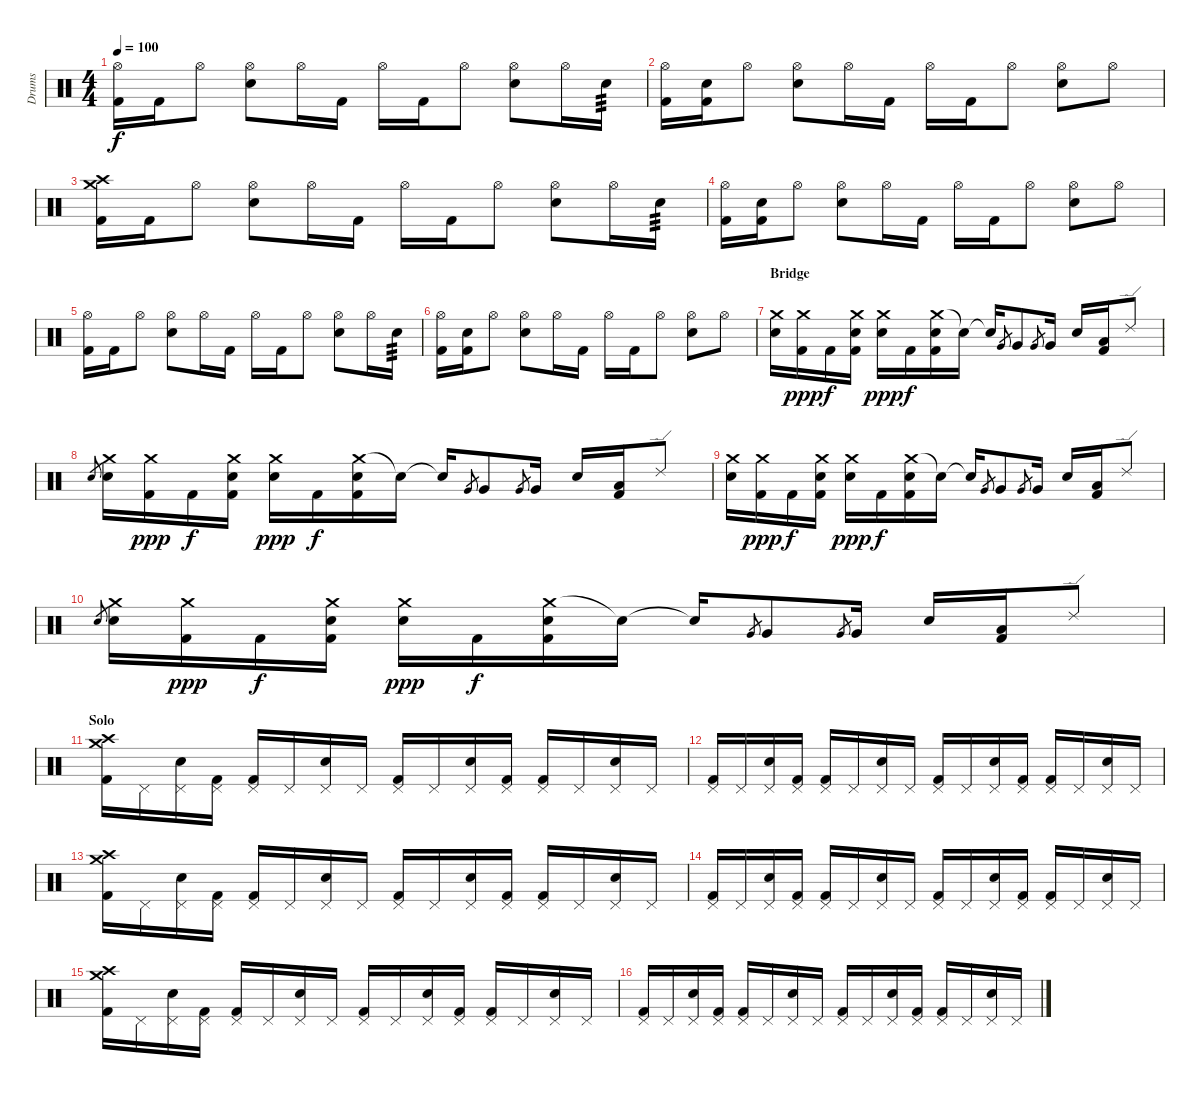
\track ("Drums" "Drums") {instrument percussion}
\staff {score}
\articulation defaults
\ts (4 4)
\tempo 100
\clef neutral
\ks c
("Hi-Hat (open)" "Kick (hit) 2").16{dy f} "Kick (hit) 2".16 "Hi-Hat (open)".8 ("Hi-Hat (open)" "Electric Snare (hit)").8 "Hi-Hat (open)".16 "Kick (hit) 2".16 "Hi-Hat (open)".16 "Kick (hit) 2".16 "Hi-Hat (open)".8 ("Hi-Hat (open)" "Electric Snare (hit)").8 "Hi-Hat (open)".16 "Electric Snare (hit)".16{tp 3} |
("Hi-Hat (open)" "Kick (hit) 2").16 ("Electric Snare (hit)" "Kick (hit) 2").16 "Hi-Hat (open)".8 ("Hi-Hat (open)" "Electric Snare (hit)").8 "Hi-Hat (open)".16 "Kick (hit) 2".16 "Hi-Hat (open)".16 "Kick (hit) 2".16 "Hi-Hat (open)".8 ("Hi-Hat (open)" "Electric Snare (hit)").8 "Hi-Hat (open)".8 |
("Crash high (hit)" "Crash medium (hit)" "Kick (hit) 2").16 "Kick (hit) 2".16 "Hi-Hat (open)".8 ("Hi-Hat (open)" "Electric Snare (hit)").8 "Hi-Hat (open)".16 "Kick (hit) 2".16 "Hi-Hat (open)".16 "Kick (hit) 2".16 "Hi-Hat (open)".8 ("Hi-Hat (open)" "Electric Snare (hit)").8 "Hi-Hat (open)".16 "Electric Snare (hit)".16{tp 3} |
("Hi-Hat (open)" "Kick (hit) 2").16 ("Electric Snare (hit)" "Kick (hit) 2").16 "Hi-Hat (open)".8 ("Hi-Hat (open)" "Electric Snare (hit)").8 "Hi-Hat (open)".16 "Kick (hit) 2".16 "Hi-Hat (open)".16 "Kick (hit) 2".16 "Hi-Hat (open)".8 ("Hi-Hat (open)" "Electric Snare (hit)").8 "Hi-Hat (open)".8 |
("Hi-Hat (open)" "Kick (hit) 2").16 "Kick (hit) 2".16 "Hi-Hat (open)".8 ("Hi-Hat (open)" "Electric Snare (hit)").8 "Hi-Hat (open)".16 "Kick (hit) 2".16 "Hi-Hat (open)".16 "Kick (hit) 2".16 "Hi-Hat (open)".8 ("Hi-Hat (open)" "Electric Snare (hit)").8 "Hi-Hat (open)".16 "Electric Snare (hit)".16{tp 3} |
("Hi-Hat (open)" "Kick (hit) 2").16 ("Electric Snare (hit)" "Kick (hit) 2").16 "Hi-Hat (open)".8 ("Hi-Hat (open)" "Electric Snare (hit)").8 "Hi-Hat (open)".16 "Kick (hit) 2".16 "Hi-Hat (open)".16 "Kick (hit) 2".16 "Hi-Hat (open)".8 ("Hi-Hat (open)" "Electric Snare (hit)").8 "Hi-Hat (open)".8 |
\section ("" "Bridge")
("Crash medium (hit)" "Electric Snare (hit)").16 ("Crash medium (hit)" "Kick (hit) 2").16{dy ppp} "Kick (hit) 2".16{dy f} ("Crash medium (hit)" "Electric Snare (hit)" "Kick (hit) 2").16 ("Crash medium (hit)" "Electric Snare (hit)").16{dy ppp} "Kick (hit) 2".16{dy f} ("Crash medium (hit)" "Electric Snare (hit)" "Kick (hit) 2").16 "Electric Snare (hit)"{t}.16 "Electric Snare (hit)"{t}.16 "Very Low Tom (hit)".8{gr} "Very Low Tom (hit)".8 "Very Low Tom (hit)".8{gr} "Very Low Tom (hit)".16 "Electric Snare (hit)".16 ("Low Tom (hit)" "Kick (hit) 2").16 "Ride (edge) 2".8 |
"Electric Snare (hit)".8{gr} ("Crash medium (hit)" "Electric Snare (hit)").16 ("Crash medium (hit)" "Kick (hit) 2").16{dy ppp} "Kick (hit) 2".16{dy f} ("Crash medium (hit)" "Electric Snare (hit)" "Kick (hit) 2").16 ("Crash medium (hit)" "Electric Snare (hit)").16{dy ppp} "Kick (hit) 2".16{dy f} ("Crash medium (hit)" "Electric Snare (hit)" "Kick (hit) 2").16 "Electric Snare (hit)"{t}.16 "Electric Snare (hit)"{t}.16 "Very Low Tom (hit)".8{gr} "Very Low Tom (hit)".8 "Very Low Tom (hit)".8{gr} "Very Low Tom (hit)".16 "Electric Snare (hit)".16 ("Low Tom (hit)" "Kick (hit) 2").16 "Ride (edge) 2".8 |
("Crash medium (hit)" "Electric Snare (hit)").16 ("Crash medium (hit)" "Kick (hit) 2").16{dy ppp} "Kick (hit) 2".16{dy f} ("Crash medium (hit)" "Electric Snare (hit)" "Kick (hit) 2").16 ("Crash medium (hit)" "Electric Snare (hit)").16{dy ppp} "Kick (hit) 2".16{dy f} ("Crash medium (hit)" "Electric Snare (hit)" "Kick (hit) 2").16 "Electric Snare (hit)"{t}.16 "Electric Snare (hit)"{t}.16 "Very Low Tom (hit)".8{gr} "Very Low Tom (hit)".8 "Very Low Tom (hit)".8{gr} "Very Low Tom (hit)".16 "Electric Snare (hit)".16 ("Low Tom (hit)" "Kick (hit) 2").16 "Ride (edge) 2".8 |
"Electric Snare (hit)".8{gr} ("Crash medium (hit)" "Electric Snare (hit)").16 ("Crash medium (hit)" "Kick (hit) 2").16{dy ppp} "Kick (hit) 2".16{dy f} ("Crash medium (hit)" "Electric Snare (hit)" "Kick (hit) 2").16 ("Crash medium (hit)" "Electric Snare (hit)").16{dy ppp} "Kick (hit) 2".16{dy f} ("Crash medium (hit)" "Electric Snare (hit)" "Kick (hit) 2").16 "Electric Snare (hit)"{t}.16 "Electric Snare (hit)"{t}.16 "Very Low Tom (hit)".8{gr} "Very Low Tom (hit)".8 "Very Low Tom (hit)".8{gr} "Very Low Tom (hit)".16 "Electric Snare (hit)".16 ("Low Tom (hit)" "Kick (hit) 2").16 "Ride (edge) 2".8 |
\section ("" "Solo")
("Crash medium (hit)" "Crash high (hit)" "Kick (hit) 2").16 "Pedal Hi-Hat (hit)".16 ("Pedal Hi-Hat (hit)" "Electric Snare (hit)").16 ("Pedal Hi-Hat (hit)" "Kick (hit) 2").16 ("Pedal Hi-Hat (hit)" "Kick (hit) 2").16 "Pedal Hi-Hat (hit)".16 ("Pedal Hi-Hat (hit)" "Electric Snare (hit)").16 "Pedal Hi-Hat (hit)".16 ("Pedal Hi-Hat (hit)" "Kick (hit) 2").16 "Pedal Hi-Hat (hit)".16 ("Pedal Hi-Hat (hit)" "Electric Snare (hit)").16 ("Pedal Hi-Hat (hit)" "Kick (hit) 2").16 ("Pedal Hi-Hat (hit)" "Kick (hit) 2").16 "Pedal Hi-Hat (hit)".16 ("Pedal Hi-Hat (hit)" "Electric Snare (hit)").16 "Pedal Hi-Hat (hit)".16 |
("Pedal Hi-Hat (hit)" "Kick (hit) 2").16 "Pedal Hi-Hat (hit)".16 ("Pedal Hi-Hat (hit)" "Electric Snare (hit)").16 ("Pedal Hi-Hat (hit)" "Kick (hit) 2").16 ("Pedal Hi-Hat (hit)" "Kick (hit) 2").16 "Pedal Hi-Hat (hit)".16 ("Pedal Hi-Hat (hit)" "Electric Snare (hit)").16 "Pedal Hi-Hat (hit)".16 ("Pedal Hi-Hat (hit)" "Kick (hit) 2").16 "Pedal Hi-Hat (hit)".16 ("Pedal Hi-Hat (hit)" "Electric Snare (hit)").16 ("Pedal Hi-Hat (hit)" "Kick (hit) 2").16 ("Pedal Hi-Hat (hit)" "Kick (hit) 2").16 "Pedal Hi-Hat (hit)".16 ("Pedal Hi-Hat (hit)" "Electric Snare (hit)").16 "Pedal Hi-Hat (hit)".16 |
("Crash medium (hit)" "Crash high (hit)" "Kick (hit) 2").16 "Pedal Hi-Hat (hit)".16 ("Pedal Hi-Hat (hit)" "Electric Snare (hit)").16 ("Pedal Hi-Hat (hit)" "Kick (hit) 2").16 ("Pedal Hi-Hat (hit)" "Kick (hit) 2").16 "Pedal Hi-Hat (hit)".16 ("Pedal Hi-Hat (hit)" "Electric Snare (hit)").16 "Pedal Hi-Hat (hit)".16 ("Pedal Hi-Hat (hit)" "Kick (hit) 2").16 "Pedal Hi-Hat (hit)".16 ("Pedal Hi-Hat (hit)" "Electric Snare (hit)").16 ("Pedal Hi-Hat (hit)" "Kick (hit) 2").16 ("Pedal Hi-Hat (hit)" "Kick (hit) 2").16 "Pedal Hi-Hat (hit)".16 ("Pedal Hi-Hat (hit)" "Electric Snare (hit)").16 "Pedal Hi-Hat (hit)".16 |
("Pedal Hi-Hat (hit)" "Kick (hit) 2").16 "Pedal Hi-Hat (hit)".16 ("Pedal Hi-Hat (hit)" "Electric Snare (hit)").16 ("Pedal Hi-Hat (hit)" "Kick (hit) 2").16 ("Pedal Hi-Hat (hit)" "Kick (hit) 2").16 "Pedal Hi-Hat (hit)".16 ("Pedal Hi-Hat (hit)" "Electric Snare (hit)").16 "Pedal Hi-Hat (hit)".16 ("Pedal Hi-Hat (hit)" "Kick (hit) 2").16 "Pedal Hi-Hat (hit)".16 ("Pedal Hi-Hat (hit)" "Electric Snare (hit)").16 ("Pedal Hi-Hat (hit)" "Kick (hit) 2").16 ("Pedal Hi-Hat (hit)" "Kick (hit) 2").16 "Pedal Hi-Hat (hit)".16 ("Pedal Hi-Hat (hit)" "Electric Snare (hit)").16 "Pedal Hi-Hat (hit)".16 |
("Crash medium (hit)" "Crash high (hit)" "Kick (hit) 2").16 "Pedal Hi-Hat (hit)".16 ("Pedal Hi-Hat (hit)" "Electric Snare (hit)").16 ("Pedal Hi-Hat (hit)" "Kick (hit) 2").16 ("Pedal Hi-Hat (hit)" "Kick (hit) 2").16 "Pedal Hi-Hat (hit)".16 ("Pedal Hi-Hat (hit)" "Electric Snare (hit)").16 "Pedal Hi-Hat (hit)".16 ("Pedal Hi-Hat (hit)" "Kick (hit) 2").16 "Pedal Hi-Hat (hit)".16 ("Pedal Hi-Hat (hit)" "Electric Snare (hit)").16 ("Pedal Hi-Hat (hit)" "Kick (hit) 2").16 ("Pedal Hi-Hat (hit)" "Kick (hit) 2").16 "Pedal Hi-Hat (hit)".16 ("Pedal Hi-Hat (hit)" "Electric Snare (hit)").16 "Pedal Hi-Hat (hit)".16 |
("Pedal Hi-Hat (hit)" "Kick (hit) 2").16 "Pedal Hi-Hat (hit)".16 ("Pedal Hi-Hat (hit)" "Electric Snare (hit)").16 ("Pedal Hi-Hat (hit)" "Kick (hit) 2").16 ("Pedal Hi-Hat (hit)" "Kick (hit) 2").16 "Pedal Hi-Hat (hit)".16 ("Pedal Hi-Hat (hit)" "Electric Snare (hit)").16 "Pedal Hi-Hat (hit)".16 ("Pedal Hi-Hat (hit)" "Kick (hit) 2").16 "Pedal Hi-Hat (hit)".16 ("Pedal Hi-Hat (hit)" "Electric Snare (hit)").16 ("Pedal Hi-Hat (hit)" "Kick (hit) 2").16 ("Pedal Hi-Hat (hit)" "Kick (hit) 2").16 "Pedal Hi-Hat (hit)".16 ("Pedal Hi-Hat (hit)" "Electric Snare (hit)").16 "Pedal Hi-Hat (hit)".16
